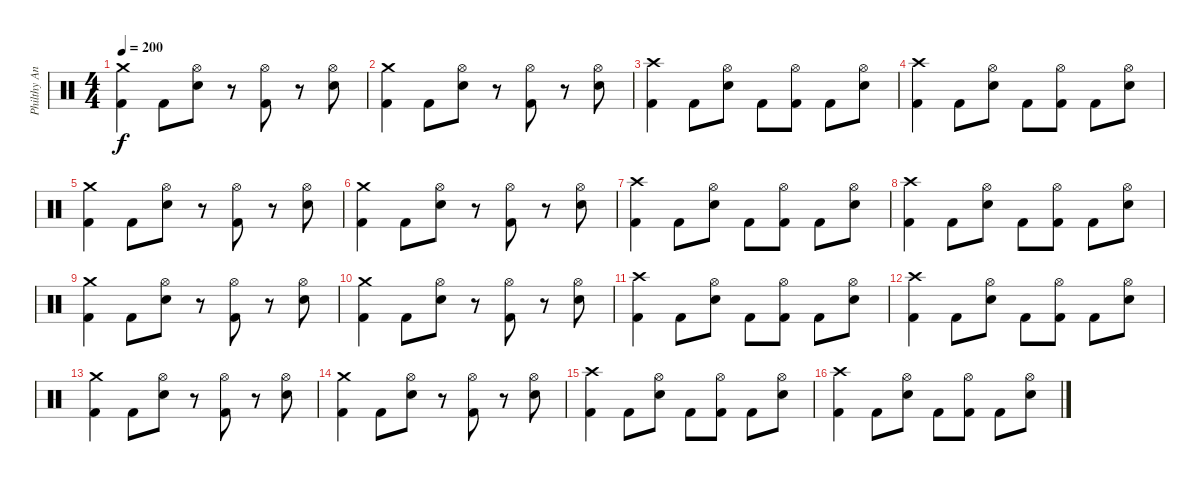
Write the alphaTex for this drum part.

\track ("Philthy Animal Taylor" "Philthy An") {instrument percussion}
\staff {score}
\articulation defaults
\ts (4 4)
\tempo 200
\clef neutral
\ks c
("Crash medium (hit)" "Kick (hit) 2").4{dy f} "Kick (hit) 2".8 ("Hi-Hat (open)" "Snare (hit) 2").8 r.8 ("Hi-Hat (open)" "Kick (hit) 2").8 r.8 ("Hi-Hat (open)" "Snare (hit) 2").8 |
("Crash medium (hit)" "Kick (hit) 2").4 "Kick (hit) 2".8 ("Hi-Hat (open)" "Snare (hit) 2").8 r.8 ("Hi-Hat (open)" "Kick (hit) 2").8 r.8 ("Hi-Hat (open)" "Snare (hit) 2").8 |
("Crash high (hit)" "Kick (hit) 2").4 "Kick (hit) 2".8 ("Hi-Hat (open)" "Snare (hit) 2").8 "Kick (hit) 2".8 ("Hi-Hat (open)" "Kick (hit) 2").8 "Kick (hit) 2".8 ("Hi-Hat (open)" "Snare (hit) 2").8 |
("Crash high (hit)" "Kick (hit) 2").4 "Kick (hit) 2".8 ("Hi-Hat (open)" "Snare (hit) 2").8 "Kick (hit) 2".8 ("Hi-Hat (open)" "Kick (hit) 2").8 "Kick (hit) 2".8 ("Hi-Hat (open)" "Snare (hit) 2").8 |
("Crash medium (hit)" "Kick (hit) 2").4 "Kick (hit) 2".8 ("Hi-Hat (open)" "Snare (hit) 2").8 r.8 ("Hi-Hat (open)" "Kick (hit) 2").8 r.8 ("Hi-Hat (open)" "Snare (hit) 2").8 |
("Crash medium (hit)" "Kick (hit) 2").4 "Kick (hit) 2".8 ("Hi-Hat (open)" "Snare (hit) 2").8 r.8 ("Hi-Hat (open)" "Kick (hit) 2").8 r.8 ("Hi-Hat (open)" "Snare (hit) 2").8 |
("Crash high (hit)" "Kick (hit) 2").4 "Kick (hit) 2".8 ("Hi-Hat (open)" "Snare (hit) 2").8 "Kick (hit) 2".8 ("Hi-Hat (open)" "Kick (hit) 2").8 "Kick (hit) 2".8 ("Hi-Hat (open)" "Snare (hit) 2").8 |
("Crash high (hit)" "Kick (hit) 2").4 "Kick (hit) 2".8 ("Hi-Hat (open)" "Snare (hit) 2").8 "Kick (hit) 2".8 ("Hi-Hat (open)" "Kick (hit) 2").8 "Kick (hit) 2".8 ("Hi-Hat (open)" "Snare (hit) 2").8 |
("Crash medium (hit)" "Kick (hit) 2").4 "Kick (hit) 2".8 ("Hi-Hat (open)" "Snare (hit) 2").8 r.8 ("Hi-Hat (open)" "Kick (hit) 2").8 r.8 ("Hi-Hat (open)" "Snare (hit) 2").8 |
("Crash medium (hit)" "Kick (hit) 2").4 "Kick (hit) 2".8 ("Hi-Hat (open)" "Snare (hit) 2").8 r.8 ("Hi-Hat (open)" "Kick (hit) 2").8 r.8 ("Hi-Hat (open)" "Snare (hit) 2").8 |
("Crash high (hit)" "Kick (hit) 2").4 "Kick (hit) 2".8 ("Hi-Hat (open)" "Snare (hit) 2").8 "Kick (hit) 2".8 ("Hi-Hat (open)" "Kick (hit) 2").8 "Kick (hit) 2".8 ("Hi-Hat (open)" "Snare (hit) 2").8 |
("Crash high (hit)" "Kick (hit) 2").4 "Kick (hit) 2".8 ("Hi-Hat (open)" "Snare (hit) 2").8 "Kick (hit) 2".8 ("Hi-Hat (open)" "Kick (hit) 2").8 "Kick (hit) 2".8 ("Hi-Hat (open)" "Snare (hit) 2").8 |
("Crash medium (hit)" "Kick (hit) 2").4 "Kick (hit) 2".8 ("Hi-Hat (open)" "Snare (hit) 2").8 r.8 ("Hi-Hat (open)" "Kick (hit) 2").8 r.8 ("Hi-Hat (open)" "Snare (hit) 2").8 |
("Crash medium (hit)" "Kick (hit) 2").4 "Kick (hit) 2".8 ("Hi-Hat (open)" "Snare (hit) 2").8 r.8 ("Hi-Hat (open)" "Kick (hit) 2").8 r.8 ("Hi-Hat (open)" "Snare (hit) 2").8 |
("Crash high (hit)" "Kick (hit) 2").4 "Kick (hit) 2".8 ("Hi-Hat (open)" "Snare (hit) 2").8 "Kick (hit) 2".8 ("Hi-Hat (open)" "Kick (hit) 2").8 "Kick (hit) 2".8 ("Hi-Hat (open)" "Snare (hit) 2").8 |
("Crash high (hit)" "Kick (hit) 2").4 "Kick (hit) 2".8 ("Hi-Hat (open)" "Snare (hit) 2").8 "Kick (hit) 2".8 ("Hi-Hat (open)" "Kick (hit) 2").8 "Kick (hit) 2".8 ("Hi-Hat (open)" "Snare (hit) 2").8
